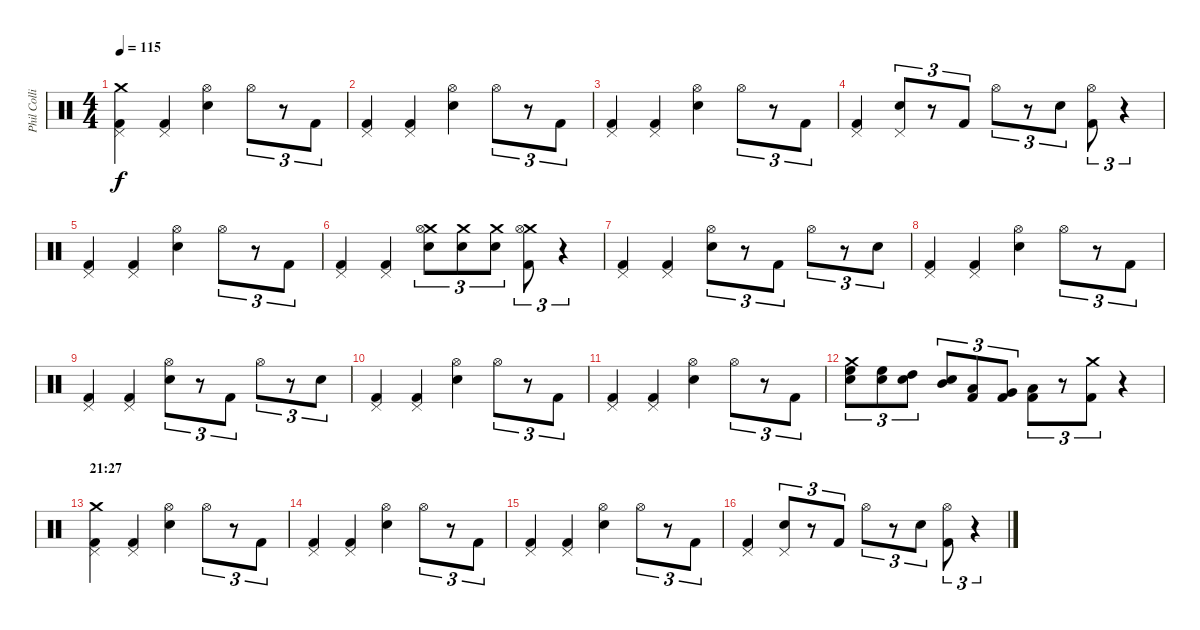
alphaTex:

\track ("Phil Collins (drums)" "Phil Colli") {instrument percussion}
\staff {score}
\articulation defaults
\ts (4 4)
\tempo 115
\clef neutral
\ks c
("Crash medium (hit)" "Pedal Hi-Hat (hit)" "Kick (hit) 2").4{dy f} ("Pedal Hi-Hat (hit)" "Kick (hit) 2").4 ("Hi-Hat (open)" "Electric Snare (hit)").4 "Hi-Hat (open)".8{tu (3 2)} r.8{tu (3 2)} "Kick (hit) 2".8{tu (3 2)} |
("Pedal Hi-Hat (hit)" "Kick (hit) 2").4 ("Pedal Hi-Hat (hit)" "Kick (hit) 2").4 ("Hi-Hat (open)" "Electric Snare (hit)").4 "Hi-Hat (open)".8{tu (3 2)} r.8{tu (3 2)} "Kick (hit) 2".8{tu (3 2)} |
("Pedal Hi-Hat (hit)" "Kick (hit) 2").4 ("Pedal Hi-Hat (hit)" "Kick (hit) 2").4 ("Hi-Hat (open)" "Electric Snare (hit)").4 "Hi-Hat (open)".8{tu (3 2)} r.8{tu (3 2)} "Kick (hit) 2".8{tu (3 2)} |
("Pedal Hi-Hat (hit)" "Kick (hit) 2").4 ("Pedal Hi-Hat (hit)" "Electric Snare (hit)").8{tu (3 2)} r.8{tu (3 2)} "Kick (hit) 2".8{tu (3 2)} "Hi-Hat (open)".8{tu (3 2)} r.8{tu (3 2)} "Electric Snare (hit)".8{tu (3 2)} ("Hi-Hat (open)" "Kick (hit) 2").8{tu (3 2)} r.4{tu (3 2)} |
("Pedal Hi-Hat (hit)" "Kick (hit) 2").4 ("Pedal Hi-Hat (hit)" "Kick (hit) 2").4 ("Hi-Hat (open)" "Electric Snare (hit)").4 "Hi-Hat (open)".8{tu (3 2)} r.8{tu (3 2)} "Kick (hit) 2".8{tu (3 2)} |
("Pedal Hi-Hat (hit)" "Kick (hit) 2").4 ("Pedal Hi-Hat (hit)" "Kick (hit) 2").4 ("Crash medium (hit)" "Hi-Hat (open)" "Electric Snare (hit)").8{tu (3 2)} ("Crash medium (hit)" "Electric Snare (hit)").8{tu (3 2)} ("Crash medium (hit)" "Electric Snare (hit)").8{tu (3 2)} ("Crash medium (hit)" "Hi-Hat (open)" "Kick (hit) 2").8{tu (3 2)} r.4{tu (3 2)} |
("Pedal Hi-Hat (hit)" "Kick (hit) 2").4 ("Pedal Hi-Hat (hit)" "Kick (hit) 2").4 ("Hi-Hat (open)" "Electric Snare (hit)").8{tu (3 2)} r.8{tu (3 2)} "Kick (hit) 2".8{tu (3 2)} "Hi-Hat (open)".8{tu (3 2)} r.8{tu (3 2)} "Electric Snare (hit)".8{tu (3 2)} |
("Pedal Hi-Hat (hit)" "Kick (hit) 2").4 ("Pedal Hi-Hat (hit)" "Kick (hit) 2").4 ("Hi-Hat (open)" "Electric Snare (hit)").4 "Hi-Hat (open)".8{tu (3 2)} r.8{tu (3 2)} "Kick (hit) 2".8{tu (3 2)} |
("Pedal Hi-Hat (hit)" "Kick (hit) 2").4 ("Pedal Hi-Hat (hit)" "Kick (hit) 2").4 ("Hi-Hat (open)" "Electric Snare (hit)").8{tu (3 2)} r.8{tu (3 2)} "Kick (hit) 2".8{tu (3 2)} "Hi-Hat (open)".8{tu (3 2)} r.8{tu (3 2)} "Electric Snare (hit)".8{tu (3 2)} |
("Pedal Hi-Hat (hit)" "Kick (hit) 2").4 ("Pedal Hi-Hat (hit)" "Kick (hit) 2").4 ("Hi-Hat (open)" "Electric Snare (hit)").4 "Hi-Hat (open)".8{tu (3 2)} r.8{tu (3 2)} "Kick (hit) 2".8{tu (3 2)} |
("Pedal Hi-Hat (hit)" "Kick (hit) 2").4 ("Pedal Hi-Hat (hit)" "Kick (hit) 2").4 ("Hi-Hat (open)" "Electric Snare (hit)").4 "Hi-Hat (open)".8{tu (3 2)} r.8{tu (3 2)} "Kick (hit) 2".8{tu (3 2)} |
("Crash medium (hit)" "High Floor Tom (hit)" "Electric Snare (hit)").8{tu (3 2)} ("High Floor Tom (hit)" "Electric Snare (hit)").8{tu (3 2)} ("High Tom (hit)" "Electric Snare (hit)").8{tu (3 2)} ("Mid Tom (hit)" "Electric Snare (hit)").8{tu (3 2)} ("Low Tom (hit)" "Kick (hit) 2").8{tu (3 2)} ("Very Low Tom (hit)" "Kick (hit) 2").8{tu (3 2)} ("Low Floor Tom (hit)" "Kick (hit) 2").8{tu (3 2)} r.8{tu (3 2)} ("Crash medium (hit)" "Kick (hit) 2").8{tu (3 2)} r.4 |
\section ("" "21:27")
("Crash medium (hit)" "Pedal Hi-Hat (hit)" "Kick (hit) 2").4 ("Pedal Hi-Hat (hit)" "Kick (hit) 2").4 ("Hi-Hat (open)" "Electric Snare (hit)").4 "Hi-Hat (open)".8{tu (3 2)} r.8{tu (3 2)} "Kick (hit) 2".8{tu (3 2)} |
("Pedal Hi-Hat (hit)" "Kick (hit) 2").4 ("Pedal Hi-Hat (hit)" "Kick (hit) 2").4 ("Hi-Hat (open)" "Electric Snare (hit)").4 "Hi-Hat (open)".8{tu (3 2)} r.8{tu (3 2)} "Kick (hit) 2".8{tu (3 2)} |
("Pedal Hi-Hat (hit)" "Kick (hit) 2").4 ("Pedal Hi-Hat (hit)" "Kick (hit) 2").4 ("Hi-Hat (open)" "Electric Snare (hit)").4 "Hi-Hat (open)".8{tu (3 2)} r.8{tu (3 2)} "Kick (hit) 2".8{tu (3 2)} |
("Pedal Hi-Hat (hit)" "Kick (hit) 2").4 ("Pedal Hi-Hat (hit)" "Electric Snare (hit)").8{tu (3 2)} r.8{tu (3 2)} "Kick (hit) 2".8{tu (3 2)} "Hi-Hat (open)".8{tu (3 2)} r.8{tu (3 2)} "Electric Snare (hit)".8{tu (3 2)} ("Hi-Hat (open)" "Kick (hit) 2").8{tu (3 2)} r.4{tu (3 2)}
